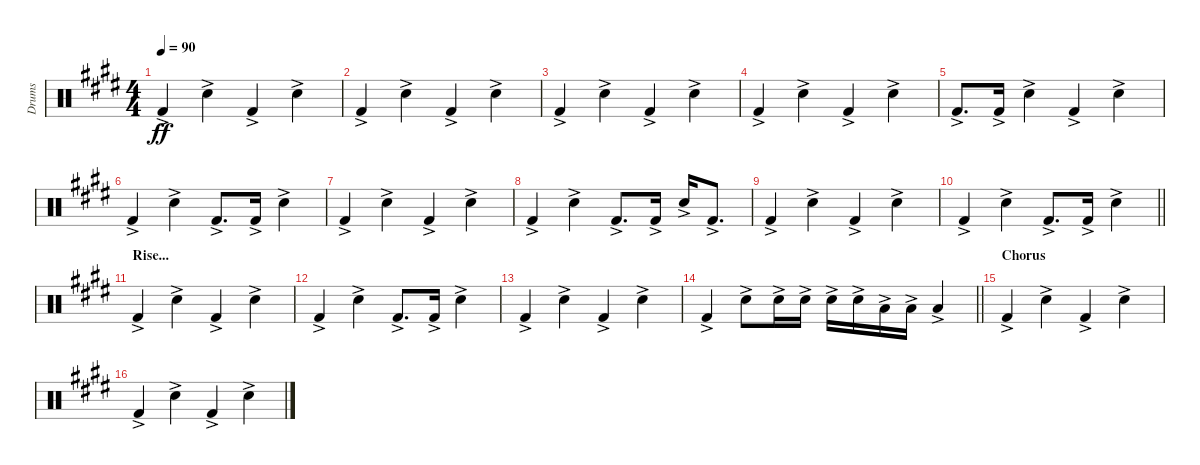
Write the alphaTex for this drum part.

\track ("Drums" "Drums") {instrument percussion}
\staff {score}
\articulation defaults
\ts (4 4)
\tempo 90
\clef neutral
\ks e "Kick (hit) 2"{ac}.4{dy ff} "Electric Snare (hit)"{ac}.4 "Kick (hit) 2"{ac}.4 "Electric Snare (hit)"{ac}.4
|
"Kick (hit) 2"{ac}.4 "Electric Snare (hit)"{ac}.4 "Kick (hit) 2"{ac}.4 "Electric Snare (hit)"{ac}.4 |
"Kick (hit) 2"{ac}.4 "Electric Snare (hit)"{ac}.4 "Kick (hit) 2"{ac}.4 "Electric Snare (hit)"{ac}.4 |
"Kick (hit) 2"{ac}.4 "Electric Snare (hit)"{ac}.4 "Kick (hit) 2"{ac}.4 "Electric Snare (hit)"{ac}.4 |
"Kick (hit) 2"{ac}.8{d} "Kick (hit) 2"{ac}.16 "Electric Snare (hit)"{ac}.4 "Kick (hit) 2"{ac}.4 "Electric Snare (hit)"{ac}.4 |
"Kick (hit) 2"{ac}.4 "Electric Snare (hit)"{ac}.4 "Kick (hit) 2"{ac}.8{d} "Kick (hit) 2"{ac}.16 "Electric Snare (hit)"{ac}.4 |
"Kick (hit) 2"{ac}.4 "Electric Snare (hit)"{ac}.4 "Kick (hit) 2"{ac}.4 "Electric Snare (hit)"{ac}.4 |
"Kick (hit) 2"{ac}.4 "Electric Snare (hit)"{ac}.4 "Kick (hit) 2"{ac}.8{d} "Kick (hit) 2"{ac}.16 "Electric Snare (hit)"{ac}.16 "Kick (hit) 2"{ac}.8{d} |
"Kick (hit) 2"{ac}.4 "Electric Snare (hit)"{ac}.4 "Kick (hit) 2"{ac}.4 "Electric Snare (hit)"{ac}.4 |
\barLineRight lightlight "Kick (hit) 2"{ac}.4 "Electric Snare (hit)"{ac}.4 "Kick (hit) 2"{ac}.8{d} "Kick (hit) 2"{ac}.16 "Electric Snare (hit)"{ac}.4
|
\section ("" "Rise...")
"Kick (hit) 2"{ac}.4 "Electric Snare (hit)"{ac}.4 "Kick (hit) 2"{ac}.4 "Electric Snare (hit)"{ac}.4 |
"Kick (hit) 2"{ac}.4 "Electric Snare (hit)"{ac}.4 "Kick (hit) 2"{ac}.8{d} "Kick (hit) 2"{ac}.16 "Electric Snare (hit)"{ac}.4 |
"Kick (hit) 2"{ac}.4 "Electric Snare (hit)"{ac}.4 "Kick (hit) 2"{ac}.4 "Electric Snare (hit)"{ac}.4 |
\barLineRight lightlight "Kick (hit) 2"{ac}.4 "Electric Snare (hit)"{ac}.8 "Electric Snare (hit)"{ac}.16 "Electric Snare (hit)"{ac}.16 "Electric Snare (hit)"{ac}.16 "Electric Snare (hit)"{ac}.16 "Low Tom (hit)"{ac}.16 "Low Tom (hit)"{ac}.16 "Low Floor Tom (hit)"{ac}.4
|
\section ("" "Chorus")
"Kick (hit) 2"{ac}.4 "Electric Snare (hit)"{ac}.4 "Kick (hit) 2"{ac}.4 "Electric Snare (hit)"{ac}.4 |
"Kick (hit) 2"{ac}.4 "Electric Snare (hit)"{ac}.4 "Kick (hit) 2"{ac}.4 "Electric Snare (hit)"{ac}.4
